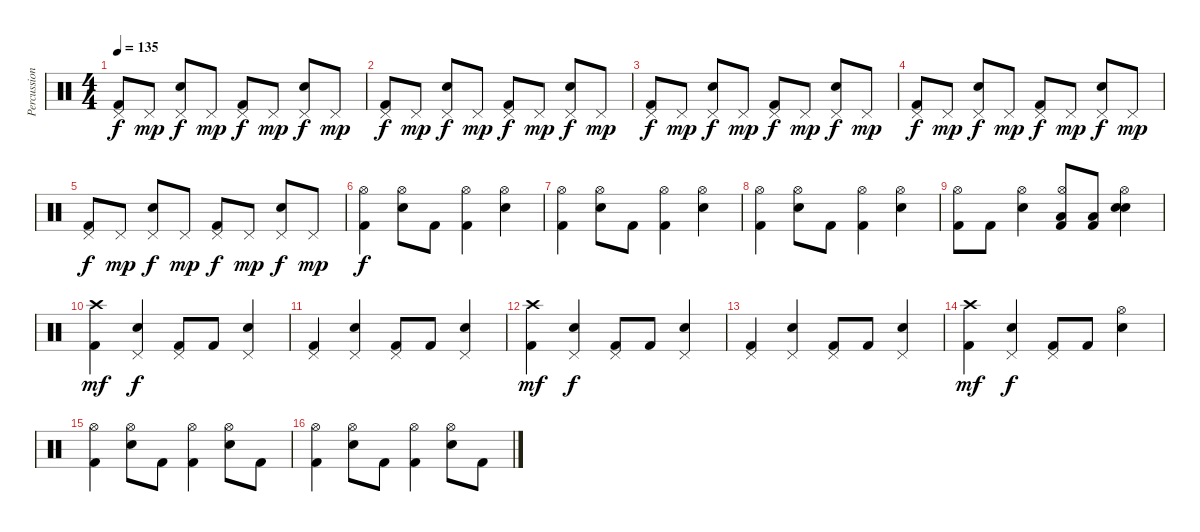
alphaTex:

\track ("Percussion" "Percussion") {instrument percussion}
\staff {score}
\articulation defaults
\ts (4 4)
\tempo 135
\clef neutral
\ks c
("Pedal Hi-Hat (hit)" "Kick (hit) 2").8{dy f} "Pedal Hi-Hat (hit)".8{dy mp} ("Pedal Hi-Hat (hit)" "Electric Snare (hit)").8{dy f} "Pedal Hi-Hat (hit)".8{dy mp} ("Pedal Hi-Hat (hit)" "Kick (hit) 2").8{dy f} "Pedal Hi-Hat (hit)".8{dy mp} ("Pedal Hi-Hat (hit)" "Electric Snare (hit)").8{dy f} "Pedal Hi-Hat (hit)".8{dy mp} |
("Pedal Hi-Hat (hit)" "Kick (hit) 2").8{dy f} "Pedal Hi-Hat (hit)".8{dy mp} ("Pedal Hi-Hat (hit)" "Electric Snare (hit)").8{dy f} "Pedal Hi-Hat (hit)".8{dy mp} ("Pedal Hi-Hat (hit)" "Kick (hit) 2").8{dy f} "Pedal Hi-Hat (hit)".8{dy mp} ("Pedal Hi-Hat (hit)" "Electric Snare (hit)").8{dy f} "Pedal Hi-Hat (hit)".8{dy mp} |
("Pedal Hi-Hat (hit)" "Kick (hit) 2").8{dy f} "Pedal Hi-Hat (hit)".8{dy mp} ("Pedal Hi-Hat (hit)" "Electric Snare (hit)").8{dy f} "Pedal Hi-Hat (hit)".8{dy mp} ("Pedal Hi-Hat (hit)" "Kick (hit) 2").8{dy f} "Pedal Hi-Hat (hit)".8{dy mp} ("Pedal Hi-Hat (hit)" "Electric Snare (hit)").8{dy f} "Pedal Hi-Hat (hit)".8{dy mp} |
("Pedal Hi-Hat (hit)" "Kick (hit) 2").8{dy f} "Pedal Hi-Hat (hit)".8{dy mp} ("Pedal Hi-Hat (hit)" "Electric Snare (hit)").8{dy f} "Pedal Hi-Hat (hit)".8{dy mp} ("Pedal Hi-Hat (hit)" "Kick (hit) 2").8{dy f} "Pedal Hi-Hat (hit)".8{dy mp} ("Pedal Hi-Hat (hit)" "Electric Snare (hit)").8{dy f} "Pedal Hi-Hat (hit)".8{dy mp} |
("Pedal Hi-Hat (hit)" "Kick (hit) 2").8{dy f} "Pedal Hi-Hat (hit)".8{dy mp} ("Pedal Hi-Hat (hit)" "Electric Snare (hit)").8{dy f} "Pedal Hi-Hat (hit)".8{dy mp} ("Pedal Hi-Hat (hit)" "Kick (hit) 2").8{dy f} "Pedal Hi-Hat (hit)".8{dy mp} ("Pedal Hi-Hat (hit)" "Electric Snare (hit)").8{dy f} "Pedal Hi-Hat (hit)".8{dy mp} |
("Hi-Hat (open)" "Kick (hit) 2").4{dy f} ("Hi-Hat (open)" "Snare (hit) 2").8 "Kick (hit) 2".8 ("Hi-Hat (open)" "Kick (hit) 2").4 ("Hi-Hat (open)" "Snare (hit) 2").4 |
("Hi-Hat (open)" "Kick (hit) 2").4 ("Hi-Hat (open)" "Snare (hit) 2").8 "Kick (hit) 2".8 ("Hi-Hat (open)" "Kick (hit) 2").4 ("Hi-Hat (open)" "Snare (hit) 2").4 |
("Hi-Hat (open)" "Kick (hit) 2").4 ("Hi-Hat (open)" "Snare (hit) 2").8 "Kick (hit) 2".8 ("Hi-Hat (open)" "Kick (hit) 2").4 ("Hi-Hat (open)" "Snare (hit) 2").4 |
("Hi-Hat (open)" "Kick (hit) 2").8 "Kick (hit) 2".8 ("Hi-Hat (open)" "Snare (hit) 2").4 ("Hi-Hat (open)" "Low Floor Tom (hit)" "Kick (hit) 2").8 ("Low Floor Tom (hit)" "Kick (hit) 2").8 ("Hi-Hat (open)" "Snare (hit) 2" "Snare (hit) 2").4{bd 120} |
("Crash high (hit)" "Kick (hit) 2").4{dy mf} ("Pedal Hi-Hat (hit)" "Snare (hit) 2").4{dy f} ("Pedal Hi-Hat (hit)" "Kick (hit) 2").8 "Kick (hit) 2".8 ("Pedal Hi-Hat (hit)" "Snare (hit) 2").4 |
("Pedal Hi-Hat (hit)" "Kick (hit) 2").4 ("Pedal Hi-Hat (hit)" "Snare (hit) 2").4 ("Pedal Hi-Hat (hit)" "Kick (hit) 2").8 "Kick (hit) 2".8 ("Pedal Hi-Hat (hit)" "Snare (hit) 2").4 |
("Crash high (hit)" "Kick (hit) 2").4{dy mf} ("Pedal Hi-Hat (hit)" "Snare (hit) 2").4{dy f} ("Pedal Hi-Hat (hit)" "Kick (hit) 2").8 "Kick (hit) 2".8 ("Pedal Hi-Hat (hit)" "Snare (hit) 2").4 |
("Pedal Hi-Hat (hit)" "Kick (hit) 2").4 ("Pedal Hi-Hat (hit)" "Snare (hit) 2").4 ("Pedal Hi-Hat (hit)" "Kick (hit) 2").8 "Kick (hit) 2".8 ("Pedal Hi-Hat (hit)" "Snare (hit) 2").4 |
("Crash high (hit)" "Kick (hit) 2").4{dy mf} ("Pedal Hi-Hat (hit)" "Snare (hit) 2").4{dy f} ("Pedal Hi-Hat (hit)" "Kick (hit) 2").8 "Kick (hit) 2".8 ("Hi-Hat (open)" "Snare (hit) 2").4 |
("Hi-Hat (open)" "Kick (hit) 2").4 ("Hi-Hat (open)" "Snare (hit) 2").8 "Kick (hit) 2".8 ("Hi-Hat (open)" "Kick (hit) 2").4 ("Hi-Hat (open)" "Snare (hit) 2").8 "Kick (hit) 2".8 |
("Hi-Hat (open)" "Kick (hit) 2").4 ("Hi-Hat (open)" "Snare (hit) 2").8 "Kick (hit) 2".8 ("Hi-Hat (open)" "Kick (hit) 2").4 ("Hi-Hat (open)" "Snare (hit) 2").8 "Kick (hit) 2".8
